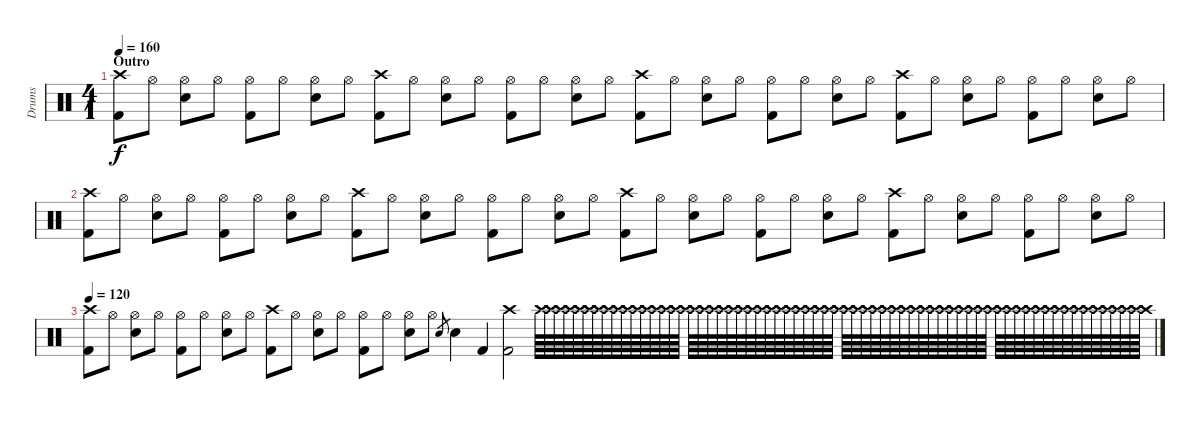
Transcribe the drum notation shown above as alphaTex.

\track ("Drums" "Drums") {instrument percussion}
\staff {score}
\articulation defaults
\ts (4 1)
\section ("" "Outro")
\tempo 160
\clef neutral
\ks c
("Crash high (hit)" "Kick (hit) 2").8{dy f} "Hi-Hat (open)".8 ("Hi-Hat (open)" "Electric Snare (hit)").8 "Hi-Hat (open)".8 ("Hi-Hat (open)" "Kick (hit) 2").8 "Hi-Hat (open)".8 ("Hi-Hat (open)" "Electric Snare (hit)").8 "Hi-Hat (open)".8 ("Crash high (hit)" "Kick (hit) 2").8 "Hi-Hat (open)".8 ("Hi-Hat (open)" "Electric Snare (hit)").8 "Hi-Hat (open)".8 ("Hi-Hat (open)" "Kick (hit) 2").8 "Hi-Hat (open)".8 ("Hi-Hat (open)" "Electric Snare (hit)").8 "Hi-Hat (open)".8 ("Crash high (hit)" "Kick (hit) 2").8 "Hi-Hat (open)".8 ("Hi-Hat (open)" "Electric Snare (hit)").8 "Hi-Hat (open)".8 ("Hi-Hat (open)" "Kick (hit) 2").8 "Hi-Hat (open)".8 ("Hi-Hat (open)" "Electric Snare (hit)").8 "Hi-Hat (open)".8 ("Crash high (hit)" "Kick (hit) 2").8 "Hi-Hat (open)".8 ("Hi-Hat (open)" "Electric Snare (hit)").8 "Hi-Hat (open)".8 ("Hi-Hat (open)" "Kick (hit) 2").8 "Hi-Hat (open)".8 ("Hi-Hat (open)" "Electric Snare (hit)").8 "Hi-Hat (open)".8 |
("Crash high (hit)" "Kick (hit) 2").8 "Hi-Hat (open)".8 ("Hi-Hat (open)" "Electric Snare (hit)").8 "Hi-Hat (open)".8 ("Hi-Hat (open)" "Kick (hit) 2").8 "Hi-Hat (open)".8 ("Hi-Hat (open)" "Electric Snare (hit)").8 "Hi-Hat (open)".8 ("Crash high (hit)" "Kick (hit) 2").8 "Hi-Hat (open)".8 ("Hi-Hat (open)" "Electric Snare (hit)").8 "Hi-Hat (open)".8 ("Hi-Hat (open)" "Kick (hit) 2").8 "Hi-Hat (open)".8 ("Hi-Hat (open)" "Electric Snare (hit)").8 "Hi-Hat (open)".8 ("Crash high (hit)" "Kick (hit) 2").8 "Hi-Hat (open)".8 ("Hi-Hat (open)" "Electric Snare (hit)").8 "Hi-Hat (open)".8 ("Hi-Hat (open)" "Kick (hit) 2").8 "Hi-Hat (open)".8 ("Hi-Hat (open)" "Electric Snare (hit)").8 "Hi-Hat (open)".8 ("Crash high (hit)" "Kick (hit) 2").8 "Hi-Hat (open)".8 ("Hi-Hat (open)" "Electric Snare (hit)").8 "Hi-Hat (open)".8 ("Hi-Hat (open)" "Kick (hit) 2").8 "Hi-Hat (open)".8 ("Hi-Hat (open)" "Electric Snare (hit)").8 "Hi-Hat (open)".8 |
\tempo 120
("Crash high (hit)" "Kick (hit) 2").8 "Hi-Hat (open)".8 ("Hi-Hat (open)" "Electric Snare (hit)").8 "Hi-Hat (open)".8 ("Hi-Hat (open)" "Kick (hit) 2").8 "Hi-Hat (open)".8 ("Hi-Hat (open)" "Electric Snare (hit)").8 "Hi-Hat (open)".8 ("Crash high (hit)" "Kick (hit) 2").8 "Hi-Hat (open)".8 ("Hi-Hat (open)" "Electric Snare (hit)").8 "Hi-Hat (open)".8 ("Hi-Hat (open)" "Kick (hit) 2").8 "Hi-Hat (open)".8 ("Hi-Hat (open)" "Electric Snare (hit)").8 "Hi-Hat (open)".8 "Electric Snare (hit)".8{gr} "Electric Snare (hit)".4 "Kick (hit) 2".4 ("Crash high (hit)" "Kick (hit) 2").2 "Crash high (hit)".64 "Crash high (hit)".64 "Crash high (hit)".64 "Crash high (hit)".64 "Crash high (hit)".64 "Crash high (hit)".64 "Crash high (hit)".64 "Crash high (hit)".64 "Crash high (hit)".64 "Crash high (hit)".64 "Crash high (hit)".64 "Crash high (hit)".64 "Crash high (hit)".64 "Crash high (hit)".64 "Crash high (hit)".64 "Crash high (hit)".64 "Crash high (hit)".64 "Crash high (hit)".64 "Crash high (hit)".64 "Crash high (hit)".64 "Crash high (hit)".64 "Crash high (hit)".64 "Crash high (hit)".64 "Crash high (hit)".64 "Crash high (hit)".64 "Crash high (hit)".64 "Crash high (hit)".64 "Crash high (hit)".64 "Crash high (hit)".64 "Crash high (hit)".64 "Crash high (hit)".64 "Crash high (hit)".64 "Crash high (hit)".64 "Crash high (hit)".64 "Crash high (hit)".64 "Crash high (hit)".64 "Crash high (hit)".64 "Crash high (hit)".64 "Crash high (hit)".64 "Crash high (hit)".64 "Crash high (hit)".64 "Crash high (hit)".64 "Crash high (hit)".64 "Crash high (hit)".64 "Crash high (hit)".64 "Crash high (hit)".64 "Crash high (hit)".64 "Crash high (hit)".64 "Crash high (hit)".64 "Crash high (hit)".64 "Crash high (hit)".64 "Crash high (hit)".64 "Crash high (hit)".64 "Crash high (hit)".64 "Crash high (hit)".64 "Crash high (hit)".64 "Crash high (hit)".64 "Crash high (hit)".64 "Crash high (hit)".64 "Crash high (hit)".64 "Crash high (hit)".64 "Crash high (hit)".64 "Crash high (hit)".64 "Crash high (hit)".64
